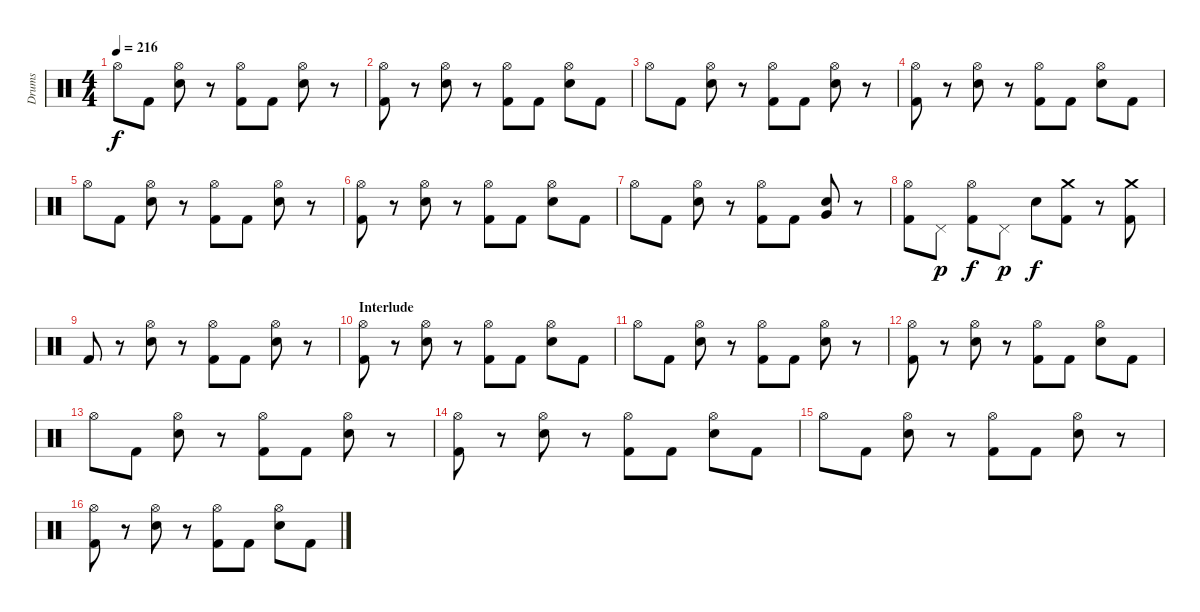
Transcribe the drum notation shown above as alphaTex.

\track ("Drums" "Drums") {instrument percussion}
\staff {score}
\articulation defaults
\ts (4 4)
\tempo 216
\clef neutral
\ks c "Hi-Hat (open)".8{dy f} "Kick (hit) 2".8
("Hi-Hat (open)" "Electric Snare (hit)").8 r.8 ("Hi-Hat (open)" "Kick (hit) 2").8 "Kick (hit) 2".8 ("Hi-Hat (open)" "Electric Snare (hit)").8 r.8 |
("Hi-Hat (open)" "Kick (hit) 2").8 r.8 ("Hi-Hat (open)" "Electric Snare (hit)").8 r.8 ("Hi-Hat (open)" "Kick (hit) 2").8 "Kick (hit) 2".8 ("Hi-Hat (open)" "Electric Snare (hit)").8 "Kick (hit) 2".8 |
"Hi-Hat (open)".8 "Kick (hit) 2".8 ("Hi-Hat (open)" "Electric Snare (hit)").8 r.8 ("Hi-Hat (open)" "Kick (hit) 2").8 "Kick (hit) 2".8 ("Hi-Hat (open)" "Electric Snare (hit)").8 r.8 |
("Hi-Hat (open)" "Kick (hit) 2").8 r.8 ("Hi-Hat (open)" "Electric Snare (hit)").8 r.8 ("Hi-Hat (open)" "Kick (hit) 2").8 "Kick (hit) 2".8 ("Hi-Hat (open)" "Electric Snare (hit)").8 "Kick (hit) 2".8 |
"Hi-Hat (open)".8 "Kick (hit) 2".8 ("Hi-Hat (open)" "Electric Snare (hit)").8 r.8 ("Hi-Hat (open)" "Kick (hit) 2").8 "Kick (hit) 2".8 ("Hi-Hat (open)" "Electric Snare (hit)").8 r.8 |
("Hi-Hat (open)" "Kick (hit) 2").8 r.8 ("Hi-Hat (open)" "Electric Snare (hit)").8 r.8 ("Hi-Hat (open)" "Kick (hit) 2").8 "Kick (hit) 2".8 ("Hi-Hat (open)" "Electric Snare (hit)").8 "Kick (hit) 2".8 |
"Hi-Hat (open)".8 "Kick (hit) 2".8 ("Hi-Hat (open)" "Electric Snare (hit)").8 r.8 ("Hi-Hat (open)" "Kick (hit) 2").8 "Kick (hit) 2".8 ("Very Low Tom (hit)" "Electric Snare (hit)").8 r.8 |
("Hi-Hat (open)" "Kick (hit) 2").8 "Pedal Hi-Hat (hit)".8{dy p} ("Hi-Hat (open)" "Kick (hit) 2").8{dy f} "Pedal Hi-Hat (hit)".8{dy p} "Electric Snare (hit)".8{dy f} ("Crash medium (hit)" "Kick (hit) 2").8 r.8 ("Crash medium (hit)" "Kick (hit) 2").8 |
"Kick (hit) 2".8 r.8 ("Hi-Hat (open)" "Electric Snare (hit)").8 r.8 ("Hi-Hat (open)" "Kick (hit) 2").8 "Kick (hit) 2".8 ("Hi-Hat (open)" "Electric Snare (hit)").8 r.8 |
\section ("" "Interlude")
("Hi-Hat (open)" "Kick (hit) 2").8 r.8 ("Hi-Hat (open)" "Electric Snare (hit)").8 r.8 ("Hi-Hat (open)" "Kick (hit) 2").8 "Kick (hit) 2".8 ("Hi-Hat (open)" "Electric Snare (hit)").8 "Kick (hit) 2".8 |
"Hi-Hat (open)".8 "Kick (hit) 2".8 ("Hi-Hat (open)" "Electric Snare (hit)").8 r.8 ("Hi-Hat (open)" "Kick (hit) 2").8 "Kick (hit) 2".8 ("Hi-Hat (open)" "Electric Snare (hit)").8 r.8 |
("Hi-Hat (open)" "Kick (hit) 2").8 r.8 ("Hi-Hat (open)" "Electric Snare (hit)").8 r.8 ("Hi-Hat (open)" "Kick (hit) 2").8 "Kick (hit) 2".8 ("Hi-Hat (open)" "Electric Snare (hit)").8 "Kick (hit) 2".8 |
"Hi-Hat (open)".8 "Kick (hit) 2".8 ("Hi-Hat (open)" "Electric Snare (hit)").8 r.8 ("Hi-Hat (open)" "Kick (hit) 2").8 "Kick (hit) 2".8 ("Hi-Hat (open)" "Electric Snare (hit)").8 r.8 |
("Hi-Hat (open)" "Kick (hit) 2").8 r.8 ("Hi-Hat (open)" "Electric Snare (hit)").8 r.8 ("Hi-Hat (open)" "Kick (hit) 2").8 "Kick (hit) 2".8 ("Hi-Hat (open)" "Electric Snare (hit)").8 "Kick (hit) 2".8 |
"Hi-Hat (open)".8 "Kick (hit) 2".8 ("Hi-Hat (open)" "Electric Snare (hit)").8 r.8 ("Hi-Hat (open)" "Kick (hit) 2").8 "Kick (hit) 2".8 ("Hi-Hat (open)" "Electric Snare (hit)").8 r.8 |
("Hi-Hat (open)" "Kick (hit) 2").8 r.8 ("Hi-Hat (open)" "Electric Snare (hit)").8 r.8 ("Hi-Hat (open)" "Kick (hit) 2").8 "Kick (hit) 2".8 ("Hi-Hat (open)" "Electric Snare (hit)").8 "Kick (hit) 2".8
